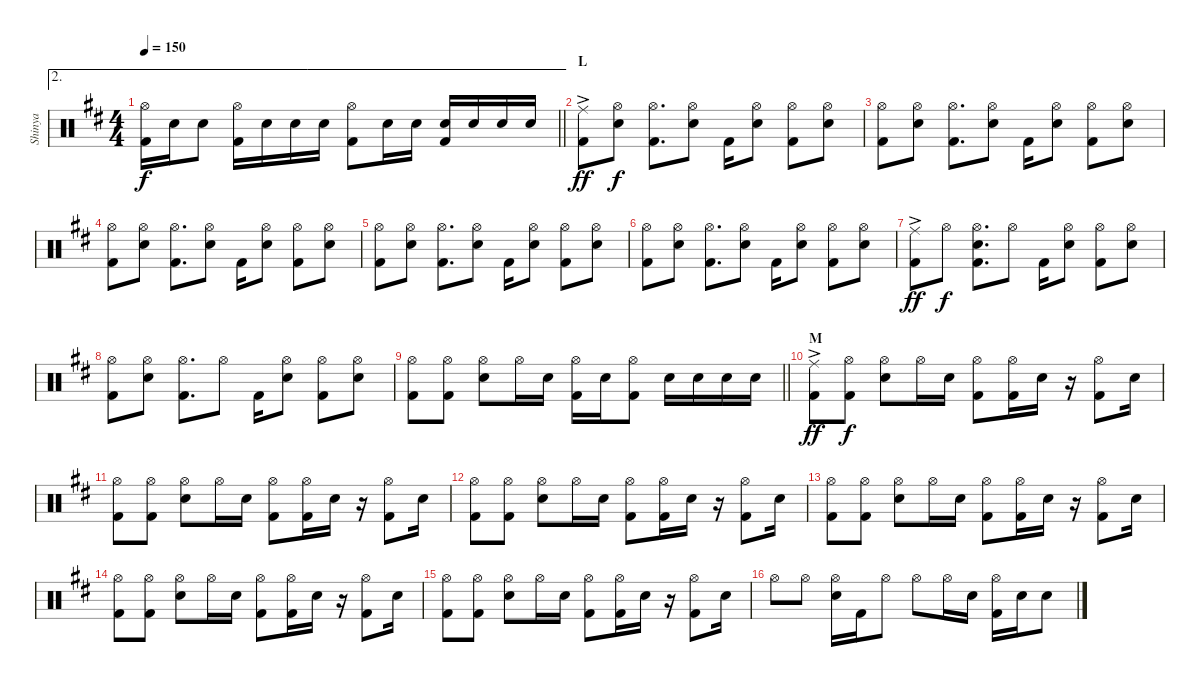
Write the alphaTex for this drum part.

\track ("Shinya" "Shinya") {instrument percussion}
\staff {score}
\articulation defaults
\ae 2
\ts (4 4)
\tempo 150
\clef neutral
\barLineRight lightlight
\ks d
("Hi-Hat (open)" "Kick (hit) 2").16{dy f} "Snare (hit) 2".16 "Snare (hit) 2".8 ("Hi-Hat (open)" "Kick (hit) 2").16 "Snare (hit) 2".16 "Snare (hit) 2".16 "Snare (hit) 2".16 ("Hi-Hat (open)" "Kick (hit) 2").8 "Snare (hit) 2".16 "Snare (hit) 2".16 ("Snare (hit) 2" "Kick (hit) 2").16 "Snare (hit) 2".16 "Snare (hit) 2".16 "Snare (hit) 2".16 |
\section ("" "L")
("Ride (middle)"{ac} "Kick (hit) 2").8{dy ff} ("Hi-Hat (open)" "Snare (hit) 2").8{dy f} ("Hi-Hat (open)" "Kick (hit) 2").8{d} ("Hi-Hat (open)" "Snare (hit) 2").8 "Kick (hit) 2".16 ("Hi-Hat (open)" "Snare (hit) 2").8 ("Hi-Hat (open)" "Kick (hit) 2").8 ("Hi-Hat (open)" "Snare (hit) 2").8 |
("Hi-Hat (open)" "Kick (hit) 2").8 ("Hi-Hat (open)" "Snare (hit) 2").8 ("Hi-Hat (open)" "Kick (hit) 2").8{d} ("Hi-Hat (open)" "Snare (hit) 2").8 "Kick (hit) 2".16 ("Hi-Hat (open)" "Snare (hit) 2").8 ("Hi-Hat (open)" "Kick (hit) 2").8 ("Hi-Hat (open)" "Snare (hit) 2").8 |
("Hi-Hat (open)" "Kick (hit) 2").8 ("Hi-Hat (open)" "Snare (hit) 2").8 ("Hi-Hat (open)" "Kick (hit) 2").8{d} ("Hi-Hat (open)" "Snare (hit) 2").8 "Kick (hit) 2".16 ("Hi-Hat (open)" "Snare (hit) 2").8 ("Hi-Hat (open)" "Kick (hit) 2").8 ("Hi-Hat (open)" "Snare (hit) 2").8 |
("Hi-Hat (open)" "Kick (hit) 2").8 ("Hi-Hat (open)" "Snare (hit) 2").8 ("Hi-Hat (open)" "Kick (hit) 2").8{d} ("Hi-Hat (open)" "Snare (hit) 2").8 "Kick (hit) 2".16 ("Hi-Hat (open)" "Snare (hit) 2").8 ("Hi-Hat (open)" "Kick (hit) 2").8 ("Hi-Hat (open)" "Snare (hit) 2").8 |
("Hi-Hat (open)" "Kick (hit) 2").8 ("Hi-Hat (open)" "Snare (hit) 2").8 ("Hi-Hat (open)" "Kick (hit) 2").8{d} ("Hi-Hat (open)" "Snare (hit) 2").8 "Kick (hit) 2".16 ("Hi-Hat (open)" "Snare (hit) 2").8 ("Hi-Hat (open)" "Kick (hit) 2").8 ("Hi-Hat (open)" "Snare (hit) 2").8 |
("Ride (middle)"{ac} "Kick (hit) 2").8{dy ff} "Hi-Hat (open)".8{dy f} ("Hi-Hat (open)" "Snare (hit) 2" "Kick (hit) 2").8{d} "Hi-Hat (open)".8 "Kick (hit) 2".16 ("Hi-Hat (open)" "Snare (hit) 2").8 ("Hi-Hat (open)" "Kick (hit) 2").8 ("Hi-Hat (open)" "Snare (hit) 2").8 |
("Hi-Hat (open)" "Kick (hit) 2").8 ("Hi-Hat (open)" "Snare (hit) 2").8 ("Hi-Hat (open)" "Kick (hit) 2").8{d} "Hi-Hat (open)".8 "Kick (hit) 2".16 ("Hi-Hat (open)" "Snare (hit) 2").8 ("Hi-Hat (open)" "Kick (hit) 2").8 ("Hi-Hat (open)" "Snare (hit) 2").8 |
\barLineRight lightlight
("Hi-Hat (open)" "Kick (hit) 2").8 ("Hi-Hat (open)" "Kick (hit) 2").8 ("Hi-Hat (open)" "Snare (hit) 2").8 "Hi-Hat (open)".16 "Snare (hit) 2".16 ("Hi-Hat (open)" "Kick (hit) 2").16 "Snare (hit) 2".16 ("Hi-Hat (open)" "Kick (hit) 2").8 "Snare (hit) 2".16 "Snare (hit) 2".16 "Snare (hit) 2".16 "Snare (hit) 2".16 |
\section ("" "M")
("Ride (middle)"{ac} "Kick (hit) 2").8{dy ff} ("Hi-Hat (open)" "Kick (hit) 2").8{dy f} ("Hi-Hat (open)" "Snare (hit) 2").8 "Hi-Hat (open)".16 "Snare (hit) 2".16 ("Hi-Hat (open)" "Kick (hit) 2").8 ("Hi-Hat (open)" "Kick (hit) 2").16 "Snare (hit) 2".16 r.16 ("Hi-Hat (open)" "Kick (hit) 2").8 "Snare (hit) 2".16 |
("Hi-Hat (open)" "Kick (hit) 2").8 ("Hi-Hat (open)" "Kick (hit) 2").8 ("Hi-Hat (open)" "Snare (hit) 2").8 "Hi-Hat (open)".16 "Snare (hit) 2".16 ("Hi-Hat (open)" "Kick (hit) 2").8 ("Hi-Hat (open)" "Kick (hit) 2").16 "Snare (hit) 2".16 r.16 ("Hi-Hat (open)" "Kick (hit) 2").8 "Snare (hit) 2".16 |
("Hi-Hat (open)" "Kick (hit) 2").8 ("Hi-Hat (open)" "Kick (hit) 2").8 ("Hi-Hat (open)" "Snare (hit) 2").8 "Hi-Hat (open)".16 "Snare (hit) 2".16 ("Hi-Hat (open)" "Kick (hit) 2").8 ("Hi-Hat (open)" "Kick (hit) 2").16 "Snare (hit) 2".16 r.16 ("Hi-Hat (open)" "Kick (hit) 2").8 "Snare (hit) 2".16 |
("Hi-Hat (open)" "Kick (hit) 2").8 ("Hi-Hat (open)" "Kick (hit) 2").8 ("Hi-Hat (open)" "Snare (hit) 2").8 "Hi-Hat (open)".16 "Snare (hit) 2".16 ("Hi-Hat (open)" "Kick (hit) 2").8 ("Hi-Hat (open)" "Kick (hit) 2").16 "Snare (hit) 2".16 r.16 ("Hi-Hat (open)" "Kick (hit) 2").8 "Snare (hit) 2".16 |
("Hi-Hat (open)" "Kick (hit) 2").8 ("Hi-Hat (open)" "Kick (hit) 2").8 ("Hi-Hat (open)" "Snare (hit) 2").8 "Hi-Hat (open)".16 "Snare (hit) 2".16 ("Hi-Hat (open)" "Kick (hit) 2").8 ("Hi-Hat (open)" "Kick (hit) 2").16 "Snare (hit) 2".16 r.16 ("Hi-Hat (open)" "Kick (hit) 2").8 "Snare (hit) 2".16 |
("Hi-Hat (open)" "Kick (hit) 2").8 ("Hi-Hat (open)" "Kick (hit) 2").8 ("Hi-Hat (open)" "Snare (hit) 2").8 "Hi-Hat (open)".16 "Snare (hit) 2".16 ("Hi-Hat (open)" "Kick (hit) 2").8 ("Hi-Hat (open)" "Kick (hit) 2").16 "Snare (hit) 2".16 r.16 ("Hi-Hat (open)" "Kick (hit) 2").8 "Snare (hit) 2".16 |
"Hi-Hat (open)".8 "Hi-Hat (open)".8 ("Hi-Hat (open)" "Snare (hit) 2").16 "Kick (hit) 2".16 "Hi-Hat (open)".8 "Hi-Hat (open)".8 "Hi-Hat (open)".16 "Snare (hit) 2".16 ("Hi-Hat (open)" "Kick (hit) 2").16 "Snare (hit) 2".16 "Snare (hit) 2".8
